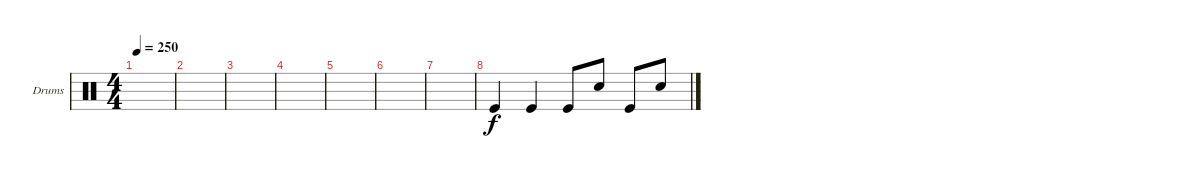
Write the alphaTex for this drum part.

\defaultSystemsLayout 4
\bracketExtendMode groupsimilarinstruments
\firstSystemTrackNameOrientation horizontal
\otherSystemsTrackNameOrientation horizontal
\track ("Драмки2" "Drums") {instrument percussion}
\staff {score}
\articulation defaults
\ts (4 4)
\tempo 250
\clef neutral
\scale
0.333333
\ks c
|
\scale
0.333333 |
\scale
0.333333 |
\scale
0.333333 |
\scale
0.333333 |
\scale
0.333333 |
\scale
0.333333 |
\scale
0.333333 "Kick (hit)".4 "Kick (hit)".4 "Kick (hit)".8 "Snare (hit) 2".8 "Kick (hit)".8 "Snare (hit) 2".8 |
\scale
0.333333 |
\scale
0.333333 |
\scale
0.333333 |
\scale
0.333333 |
\scale
0.333333 |
\scale
0.333333 |
\scale
0.333333 |
\scale
0.333333
